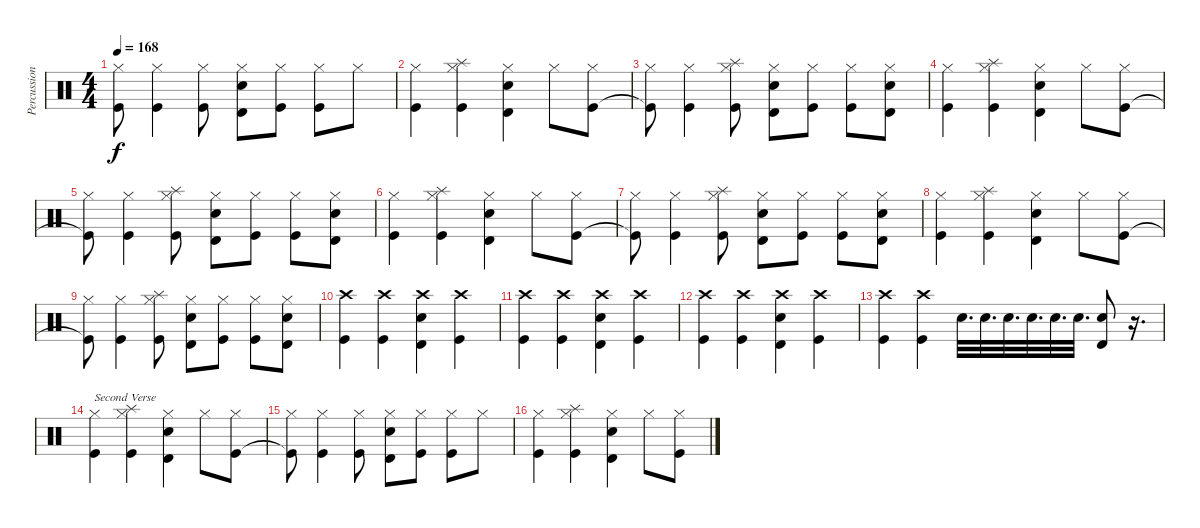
\track ("Percussion" "Percussion") {instrument percussion}
\staff {score}
\articulation defaults
\ts (4 4)
\tempo 168
\clef neutral
\ks c
("Hi-Hat (closed)" "Kick (hit)"{t}).8{dy f} ("Hi-Hat (closed)" "Kick (hit)").4 ("Hi-Hat (closed)" "Kick (hit)").8 ("Hi-Hat (closed)" "Timbale high (hit)" "Electric Snare (hit)").8 ("Hi-Hat (closed)" "Kick (hit)").8 ("Hi-Hat (closed)" "Kick (hit)").8 "Hi-Hat (closed)".8 |
("Hi-Hat (closed)" "Kick (hit)").4 ("Hi-Hat (closed)" "Splash (hit)" "Kick (hit)").4 ("Hi-Hat (closed)" "Timbale high (hit)" "Electric Snare (hit)").4 "Hi-Hat (closed)".8 ("Hi-Hat (closed)" "Kick (hit)").8 |
("Hi-Hat (closed)" "Kick (hit)"{t}).8 ("Hi-Hat (closed)" "Kick (hit)").4 ("Hi-Hat (closed)" "Splash (hit)" "Kick (hit)").8 ("Hi-Hat (closed)" "Timbale high (hit)" "Electric Snare (hit)").8 ("Hi-Hat (closed)" "Kick (hit)").8 ("Hi-Hat (closed)" "Kick (hit)").8 ("Hi-Hat (closed)" "Timbale high (hit)" "Electric Snare (hit)").8 |
("Hi-Hat (closed)" "Kick (hit)").4 ("Hi-Hat (closed)" "Splash (hit)" "Kick (hit)").4 ("Hi-Hat (closed)" "Timbale high (hit)" "Electric Snare (hit)").4 "Hi-Hat (closed)".8 ("Hi-Hat (closed)" "Kick (hit)").8 |
("Hi-Hat (closed)" "Kick (hit)"{t}).8 ("Hi-Hat (closed)" "Kick (hit)").4 ("Hi-Hat (closed)" "Splash (hit)" "Kick (hit)").8 ("Hi-Hat (closed)" "Timbale high (hit)" "Electric Snare (hit)").8 ("Hi-Hat (closed)" "Kick (hit)").8 ("Hi-Hat (closed)" "Kick (hit)").8 ("Hi-Hat (closed)" "Timbale high (hit)" "Electric Snare (hit)").8 |
("Hi-Hat (closed)" "Kick (hit)").4 ("Hi-Hat (closed)" "Splash (hit)" "Kick (hit)").4 ("Hi-Hat (closed)" "Timbale high (hit)" "Electric Snare (hit)").4 "Hi-Hat (closed)".8 ("Hi-Hat (closed)" "Kick (hit)").8 |
("Hi-Hat (closed)" "Kick (hit)"{t}).8 ("Hi-Hat (closed)" "Kick (hit)").4 ("Hi-Hat (closed)" "Splash (hit)" "Kick (hit)").8 ("Hi-Hat (closed)" "Timbale high (hit)" "Electric Snare (hit)").8 ("Hi-Hat (closed)" "Kick (hit)").8 ("Hi-Hat (closed)" "Kick (hit)").8 ("Hi-Hat (closed)" "Timbale high (hit)" "Electric Snare (hit)").8 |
("Hi-Hat (closed)" "Kick (hit)").4 ("Hi-Hat (closed)" "Splash (hit)" "Kick (hit)").4 ("Hi-Hat (closed)" "Timbale high (hit)" "Electric Snare (hit)").4 "Hi-Hat (closed)".8 ("Hi-Hat (closed)" "Kick (hit)").8 |
("Hi-Hat (closed)" "Kick (hit)"{t}).8 ("Hi-Hat (closed)" "Kick (hit)").4 ("Hi-Hat (closed)" "Splash (hit)" "Kick (hit)").8 ("Hi-Hat (closed)" "Timbale high (hit)" "Electric Snare (hit)").8 ("Hi-Hat (closed)" "Kick (hit)").8 ("Hi-Hat (closed)" "Kick (hit)").8 ("Hi-Hat (closed)" "Timbale high (hit)" "Electric Snare (hit)").8 |
("Crash high (hit)" "Kick (hit)").4 ("Crash high (hit)" "Kick (hit)").4 ("Crash high (hit)" "Timbale high (hit)" "Electric Snare (hit)").4 ("Crash high (hit)" "Kick (hit)").4 |
("Crash high (hit)" "Kick (hit)").4 ("Crash high (hit)" "Kick (hit)").4 ("Crash high (hit)" "Timbale high (hit)" "Electric Snare (hit)").4 ("Crash high (hit)" "Kick (hit)").4 |
("Crash high (hit)" "Kick (hit)").4 ("Crash high (hit)" "Kick (hit)").4 ("Crash high (hit)" "Timbale high (hit)" "Electric Snare (hit)").4 ("Crash high (hit)" "Kick (hit)").4 |
("Crash high (hit)" "Kick (hit)").4 ("Crash high (hit)" "Kick (hit)").4 "Electric Snare (hit)".32{d} "Electric Snare (hit)".32{d} "Electric Snare (hit)".32{d} "Electric Snare (hit)".32{d} "Electric Snare (hit)".32{d} "Electric Snare (hit)".32{d} ("Electric Snare (hit)" "Timbale high (hit)").8 r.16{d} |
("Hi-Hat (closed)" "Kick (hit)").4{txt "Second Verse"} ("Hi-Hat (closed)" "Splash (hit)" "Kick (hit)").4 ("Hi-Hat (closed)" "Timbale high (hit)" "Electric Snare (hit)").4 "Hi-Hat (closed)".8 ("Hi-Hat (closed)" "Kick (hit)").8 |
("Hi-Hat (closed)" "Kick (hit)"{t}).8 ("Hi-Hat (closed)" "Kick (hit)").4 ("Hi-Hat (closed)" "Kick (hit)").8 ("Hi-Hat (closed)" "Timbale high (hit)" "Electric Snare (hit)").8 ("Hi-Hat (closed)" "Kick (hit)").8 ("Hi-Hat (closed)" "Kick (hit)").8 "Hi-Hat (closed)".8 |
("Hi-Hat (closed)" "Kick (hit)").4 ("Hi-Hat (closed)" "Splash (hit)" "Kick (hit)").4 ("Hi-Hat (closed)" "Timbale high (hit)" "Electric Snare (hit)").4 "Hi-Hat (closed)".8 ("Hi-Hat (closed)" "Kick (hit)").8
